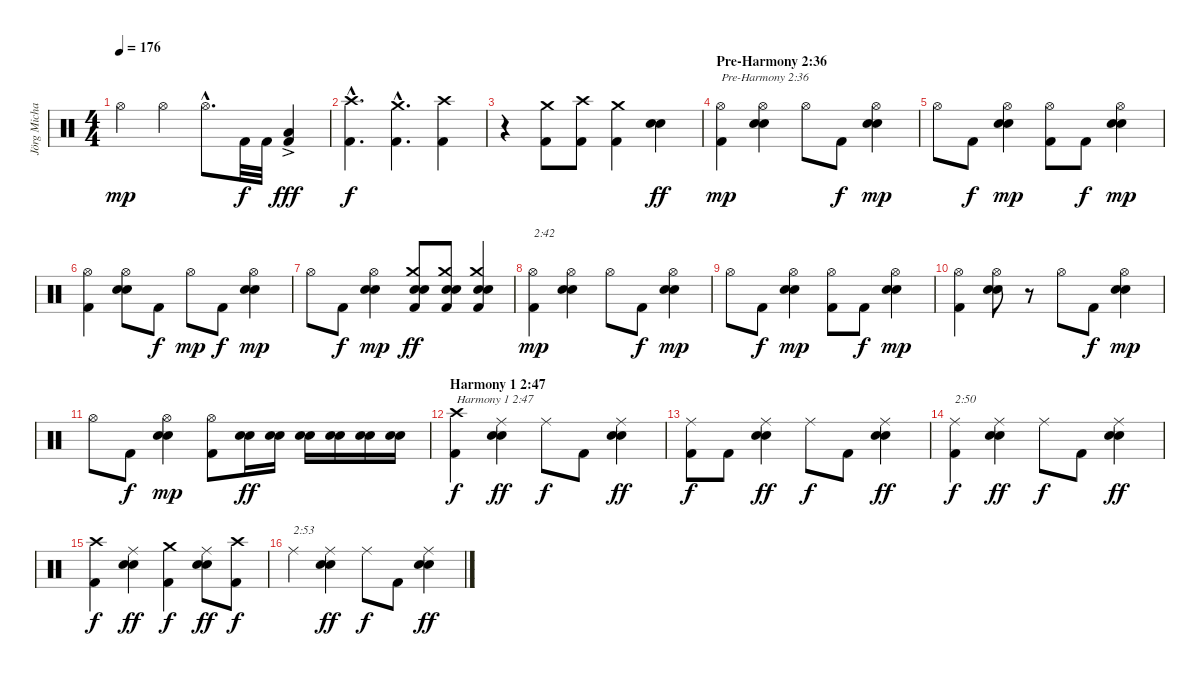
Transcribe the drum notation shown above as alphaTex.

\track ("Jörg Michael" "Jörg Micha") {instrument percussion}
\staff {score}
\articulation defaults
\ts (4 4)
\tempo 176
\clef neutral
\ks c "Hi-Hat (open)".4{dy mp} "Hi-Hat (open)".4 "Hi-Hat (open)"{hac}.8{d} "Kick (hit) 2".32{dy f} "Kick (hit) 2".32
("Kick (hit) 2" "Low Floor Tom (hit)"{ac}).4{dy fff} |
("Kick (hit) 2"{hac} "Crash high (hit)"{hac}).4{d dy f} ("Kick (hit) 2"{hac} "Crash medium (hit)"{hac}).4{d} ("Kick (hit) 2" "Crash high (hit)").4 |
r.4 ("Kick (hit) 2" "Crash medium (hit)").8 ("Kick (hit) 2" "Crash high (hit)").8 ("Kick (hit) 2" "Crash medium (hit)").4 ("Snare (hit) 2" "Electric Snare (hit)").4{dy ff} |
\section ("" "Pre-Harmony 2:36")
("Kick (hit) 2" "Hi-Hat (open)").4{txt "Pre-Harmony 2:36" dy mp} ("Snare (hit) 2" "Electric Snare (hit)" "Hi-Hat (open)").4 "Hi-Hat (open)".8 "Kick (hit) 2".8{dy f} ("Snare (hit) 2" "Electric Snare (hit)" "Hi-Hat (open)").4{dy mp} |
"Hi-Hat (open)".8 "Kick (hit) 2".8{dy f} ("Snare (hit) 2" "Electric Snare (hit)" "Hi-Hat (open)").4{dy mp} ("Kick (hit) 2" "Hi-Hat (open)").8 "Kick (hit) 2".8{dy f} ("Snare (hit) 2" "Electric Snare (hit)" "Hi-Hat (open)").4{dy mp} |
("Kick (hit) 2" "Hi-Hat (open)").4 ("Snare (hit) 2" "Electric Snare (hit)" "Hi-Hat (open)").8 "Kick (hit) 2".8{dy f} "Hi-Hat (open)".8{dy mp} "Kick (hit) 2".8{dy f} ("Snare (hit) 2" "Electric Snare (hit)" "Hi-Hat (open)").4{dy mp} |
"Hi-Hat (open)".8 "Kick (hit) 2".8{dy f} ("Snare (hit) 2" "Electric Snare (hit)" "Hi-Hat (open)").4{dy mp} ("Kick (hit) 2" "Snare (hit) 2" "Electric Snare (hit)" "Crash medium (hit)").8{dy ff} ("Kick (hit) 2" "Snare (hit) 2" "Electric Snare (hit)" "Crash medium (hit)").8 ("Kick (hit) 2" "Snare (hit) 2" "Electric Snare (hit)" "Crash medium (hit)").4 |
("Kick (hit) 2" "Hi-Hat (open)").4{txt "2:42" dy mp} ("Snare (hit) 2" "Electric Snare (hit)" "Hi-Hat (open)").4 "Hi-Hat (open)".8 "Kick (hit) 2".8{dy f} ("Snare (hit) 2" "Electric Snare (hit)" "Hi-Hat (open)").4{dy mp} |
"Hi-Hat (open)".8 "Kick (hit) 2".8{dy f} ("Snare (hit) 2" "Electric Snare (hit)" "Hi-Hat (open)").4{dy mp} ("Kick (hit) 2" "Hi-Hat (open)").8 "Kick (hit) 2".8{dy f} ("Snare (hit) 2" "Electric Snare (hit)" "Hi-Hat (open)").4{dy mp} |
("Kick (hit) 2" "Hi-Hat (open)").4 ("Snare (hit) 2" "Electric Snare (hit)" "Hi-Hat (open)").8 r.8 "Hi-Hat (open)".8 "Kick (hit) 2".8{dy f} ("Snare (hit) 2" "Electric Snare (hit)" "Hi-Hat (open)").4{dy mp} |
"Hi-Hat (open)".8 "Kick (hit) 2".8{dy f} ("Snare (hit) 2" "Electric Snare (hit)" "Hi-Hat (open)").4{dy mp} ("Kick (hit) 2" "Hi-Hat (open)").8 ("Snare (hit) 2" "Electric Snare (hit)").16{dy ff} ("Snare (hit) 2" "Electric Snare (hit)").16 ("Snare (hit) 2" "Electric Snare (hit)").16 ("Snare (hit) 2" "Electric Snare (hit)").16 ("Snare (hit) 2" "Electric Snare (hit)").16 ("Snare (hit) 2" "Electric Snare (hit)").16 |
\section ("" "Harmony 1 2:47")
("Kick (hit) 2" "Crash high (hit)").4{txt "Harmony 1 2:47" dy f} ("Snare (hit) 2" "Electric Snare (hit)" "Ride (middle)").4{dy ff} "Ride (middle)".8{dy f} "Kick (hit) 2".8 ("Snare (hit) 2" "Electric Snare (hit)" "Ride (middle)").4{dy ff} |
("Kick (hit) 2" "Ride (middle)").8{dy f} "Kick (hit) 2".8 ("Snare (hit) 2" "Electric Snare (hit)" "Ride (middle)").4{dy ff} "Ride (middle)".8{dy f} "Kick (hit) 2".8 ("Snare (hit) 2" "Electric Snare (hit)" "Ride (middle)").4{dy ff} |
("Kick (hit) 2" "Ride (middle)").4{txt "2:50" dy f} ("Snare (hit) 2" "Electric Snare (hit)" "Ride (middle)").4{dy ff} "Ride (middle)".8{dy f} "Kick (hit) 2".8 ("Snare (hit) 2" "Electric Snare (hit)" "Ride (middle)").4{dy ff} |
("Kick (hit) 2" "Crash high (hit)").4{dy f} ("Snare (hit) 2" "Electric Snare (hit)" "Ride (middle)").4{dy ff} ("Kick (hit) 2" "Crash medium (hit)").4{dy f} ("Snare (hit) 2" "Electric Snare (hit)" "Ride (middle)").8{dy ff} ("Kick (hit) 2" "Crash high (hit)").8{dy f} |
"Ride (middle)".4{txt "2:53"} ("Snare (hit) 2" "Electric Snare (hit)" "Ride (middle)").4{dy ff} "Ride (middle)".8{dy f} "Kick (hit) 2".8 ("Snare (hit) 2" "Electric Snare (hit)" "Ride (middle)").4{dy ff}
